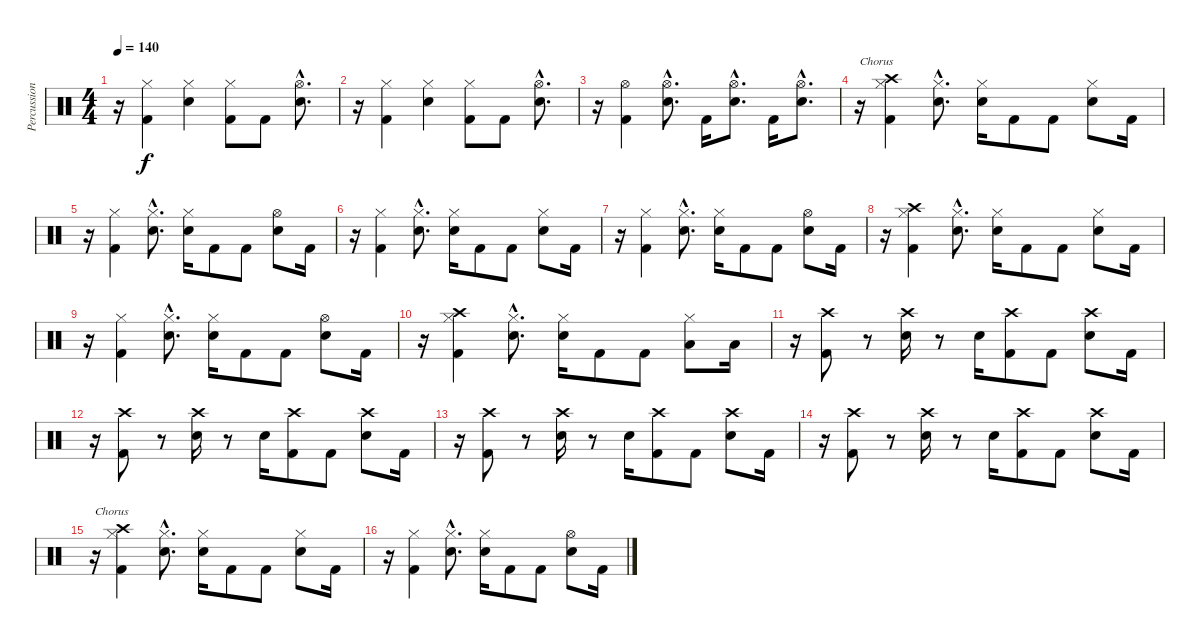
\track ("Percussion" "Percussion") {instrument percussion}
\staff {score}
\articulation defaults
\ts (4 4)
\tempo 140
\clef neutral
\ks c
r.16{dy f} ("Hi-Hat (closed)" "Kick (hit) 2").4 ("Hi-Hat (closed)" "Electric Snare (hit)").4 ("Hi-Hat (closed)" "Kick (hit) 2").8 "Kick (hit) 2".8 ("Hi-Hat (open)"{hac} "Electric Snare (hit)"{hac}).8{d} |
r.16 ("Hi-Hat (closed)" "Kick (hit) 2").4 ("Hi-Hat (closed)" "Electric Snare (hit)").4 ("Hi-Hat (closed)" "Kick (hit) 2").8 "Kick (hit) 2".8 ("Hi-Hat (open)"{hac} "Electric Snare (hit)"{hac}).8{d} |
r.16 ("Hi-Hat (open)" "Kick (hit) 2").4 ("Hi-Hat (open)"{hac} "Electric Snare (hit)"{hac}).8{d} "Kick (hit) 2".16 ("Hi-Hat (open)"{hac} "Electric Snare (hit)"{hac}).8{d} "Kick (hit) 2".16 ("Hi-Hat (open)"{hac} "Electric Snare (hit)"{hac}).8{d} |
r.16{txt "Chorus"} ("Crash high (hit)" "Hi-Hat (closed)" "Kick (hit) 2").4 ("Hi-Hat (closed)"{hac} "Electric Snare (hit)"{hac}).8{d} ("Hi-Hat (closed)" "Electric Snare (hit)").16 "Kick (hit) 2".8 "Kick (hit) 2".8 ("Hi-Hat (closed)" "Electric Snare (hit)").8 "Kick (hit) 2".16 |
r.16 ("Hi-Hat (closed)" "Kick (hit) 2").4 ("Hi-Hat (closed)"{hac} "Electric Snare (hit)"{hac}).8{d} ("Hi-Hat (closed)" "Electric Snare (hit)").16 "Kick (hit) 2".8 "Kick (hit) 2".8 ("Hi-Hat (open)" "Electric Snare (hit)").8 "Kick (hit) 2".16 |
r.16 ("Hi-Hat (closed)" "Kick (hit) 2").4 ("Hi-Hat (closed)"{hac} "Electric Snare (hit)"{hac}).8{d} ("Hi-Hat (closed)" "Electric Snare (hit)").16 "Kick (hit) 2".8 "Kick (hit) 2".8 ("Hi-Hat (closed)" "Electric Snare (hit)").8 "Kick (hit) 2".16 |
r.16 ("Hi-Hat (closed)" "Kick (hit) 2").4 ("Hi-Hat (closed)"{hac} "Electric Snare (hit)"{hac}).8{d} ("Hi-Hat (closed)" "Electric Snare (hit)").16 "Kick (hit) 2".8 "Kick (hit) 2".8 ("Hi-Hat (open)" "Electric Snare (hit)").8 "Kick (hit) 2".16 |
r.16 ("Crash high (hit)" "Hi-Hat (closed)" "Kick (hit) 2").4 ("Hi-Hat (closed)"{hac} "Electric Snare (hit)"{hac}).8{d} ("Hi-Hat (closed)" "Electric Snare (hit)").16 "Kick (hit) 2".8 "Kick (hit) 2".8 ("Hi-Hat (closed)" "Electric Snare (hit)").8 "Kick (hit) 2".16 |
r.16 ("Hi-Hat (closed)" "Kick (hit) 2").4 ("Hi-Hat (closed)"{hac} "Electric Snare (hit)"{hac}).8{d} ("Hi-Hat (closed)" "Electric Snare (hit)").16 "Kick (hit) 2".8 "Kick (hit) 2".8 ("Hi-Hat (open)" "Electric Snare (hit)").8 "Kick (hit) 2".16 |
r.16 ("Crash high (hit)" "Hi-Hat (closed)" "Kick (hit) 2").4 ("Hi-Hat (closed)"{hac} "Electric Snare (hit)"{hac}).8{d} ("Hi-Hat (closed)" "Electric Snare (hit)").16 "Kick (hit) 2".8 "Kick (hit) 2".8 ("Hi-Hat (closed)" "Low Tom (hit)").8 "Low Tom (hit)".16 |
r.16 ("Crash high (hit)" "Kick (hit) 2").8 r.8 ("Crash high (hit)" "Electric Snare (hit)").16 r.8 "Electric Snare (hit)".16 ("Crash high (hit)" "Kick (hit) 2").8 "Kick (hit) 2".8 ("Crash high (hit)" "Electric Snare (hit)").8 "Kick (hit) 2".16 |
r.16 ("Crash high (hit)" "Kick (hit) 2").8 r.8 ("Crash high (hit)" "Electric Snare (hit)").16 r.8 "Electric Snare (hit)".16 ("Crash high (hit)" "Kick (hit) 2").8 "Kick (hit) 2".8 ("Crash high (hit)" "Electric Snare (hit)").8 "Kick (hit) 2".16 |
r.16 ("Crash high (hit)" "Kick (hit) 2").8 r.8 ("Crash high (hit)" "Electric Snare (hit)").16 r.8 "Electric Snare (hit)".16 ("Crash high (hit)" "Kick (hit) 2").8 "Kick (hit) 2".8 ("Crash high (hit)" "Electric Snare (hit)").8 "Kick (hit) 2".16 |
r.16 ("Crash high (hit)" "Kick (hit) 2").8 r.8 ("Crash high (hit)" "Electric Snare (hit)").16 r.8 "Electric Snare (hit)".16 ("Crash high (hit)" "Kick (hit) 2").8 "Kick (hit) 2".8 ("Crash high (hit)" "Electric Snare (hit)").8 "Kick (hit) 2".16 |
r.16{txt "Chorus"} ("Crash high (hit)" "Hi-Hat (closed)" "Kick (hit) 2").4 ("Hi-Hat (closed)"{hac} "Electric Snare (hit)"{hac}).8{d} ("Hi-Hat (closed)" "Electric Snare (hit)").16 "Kick (hit) 2".8 "Kick (hit) 2".8 ("Hi-Hat (closed)" "Electric Snare (hit)").8 "Kick (hit) 2".16 |
r.16 ("Hi-Hat (closed)" "Kick (hit) 2").4 ("Hi-Hat (closed)"{hac} "Electric Snare (hit)"{hac}).8{d} ("Hi-Hat (closed)" "Electric Snare (hit)").16 "Kick (hit) 2".8 "Kick (hit) 2".8 ("Hi-Hat (open)" "Electric Snare (hit)").8 "Kick (hit) 2".16
